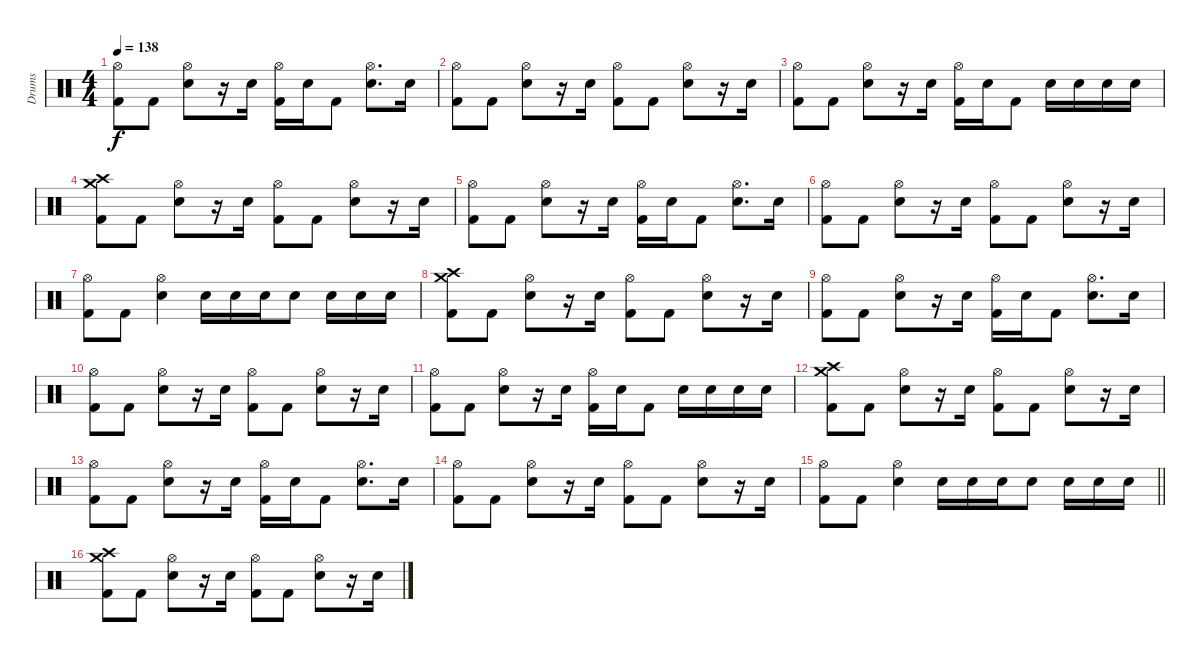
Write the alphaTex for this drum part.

\track ("Drums" "Drums") {instrument percussion}
\staff {score}
\articulation defaults
\ts (4 4)
\tempo 138
\clef neutral
\ks c
("Hi-Hat (open)" "Kick (hit) 2").8{dy f} "Kick (hit) 2".8 ("Hi-Hat (open)" "Electric Snare (hit)").8 r.16 "Electric Snare (hit)".16 ("Hi-Hat (open)" "Kick (hit) 2").16 "Electric Snare (hit)".16 "Kick (hit) 2".8 ("Hi-Hat (open)" "Electric Snare (hit)").8{d} "Electric Snare (hit)".16 |
("Hi-Hat (open)" "Kick (hit) 2").8 "Kick (hit) 2".8 ("Hi-Hat (open)" "Electric Snare (hit)").8 r.16 "Electric Snare (hit)".16 ("Hi-Hat (open)" "Kick (hit) 2").8 "Kick (hit) 2".8 ("Hi-Hat (open)" "Electric Snare (hit)").8 r.16 "Electric Snare (hit)".16 |
("Hi-Hat (open)" "Kick (hit) 2").8 "Kick (hit) 2".8 ("Hi-Hat (open)" "Electric Snare (hit)").8 r.16 "Electric Snare (hit)".16 ("Hi-Hat (open)" "Kick (hit) 2").16 "Electric Snare (hit)".16 "Kick (hit) 2".8 "Electric Snare (hit)".16 "Electric Snare (hit)".16 "Electric Snare (hit)".16 "Electric Snare (hit)".16 |
("Crash high (hit)" "Crash medium (hit)" "Kick (hit) 2").8 "Kick (hit) 2".8 ("Hi-Hat (open)" "Electric Snare (hit)").8 r.16 "Electric Snare (hit)".16 ("Hi-Hat (open)" "Kick (hit) 2").8 "Kick (hit) 2".8 ("Hi-Hat (open)" "Electric Snare (hit)").8 r.16 "Electric Snare (hit)".16 |
("Hi-Hat (open)" "Kick (hit) 2").8 "Kick (hit) 2".8 ("Hi-Hat (open)" "Electric Snare (hit)").8 r.16 "Electric Snare (hit)".16 ("Hi-Hat (open)" "Kick (hit) 2").16 "Electric Snare (hit)".16 "Kick (hit) 2".8 ("Hi-Hat (open)" "Electric Snare (hit)").8{d} "Electric Snare (hit)".16 |
("Hi-Hat (open)" "Kick (hit) 2").8 "Kick (hit) 2".8 ("Hi-Hat (open)" "Electric Snare (hit)").8 r.16 "Electric Snare (hit)".16 ("Hi-Hat (open)" "Kick (hit) 2").8 "Kick (hit) 2".8 ("Hi-Hat (open)" "Electric Snare (hit)").8 r.16 "Electric Snare (hit)".16 |
("Hi-Hat (open)" "Kick (hit) 2").8 "Kick (hit) 2".8 ("Hi-Hat (open)" "Electric Snare (hit)").4 "Electric Snare (hit)".16 "Electric Snare (hit)".16 "Electric Snare (hit)".16 "Electric Snare (hit)".8 "Electric Snare (hit)".16 "Electric Snare (hit)".16 "Electric Snare (hit)".16 |
("Crash high (hit)" "Crash medium (hit)" "Kick (hit) 2").8 "Kick (hit) 2".8 ("Hi-Hat (open)" "Electric Snare (hit)").8 r.16 "Electric Snare (hit)".16 ("Hi-Hat (open)" "Kick (hit) 2").8 "Kick (hit) 2".8 ("Hi-Hat (open)" "Electric Snare (hit)").8 r.16 "Electric Snare (hit)".16 |
("Hi-Hat (open)" "Kick (hit) 2").8 "Kick (hit) 2".8 ("Hi-Hat (open)" "Electric Snare (hit)").8 r.16 "Electric Snare (hit)".16 ("Hi-Hat (open)" "Kick (hit) 2").16 "Electric Snare (hit)".16 "Kick (hit) 2".8 ("Hi-Hat (open)" "Electric Snare (hit)").8{d} "Electric Snare (hit)".16 |
("Hi-Hat (open)" "Kick (hit) 2").8 "Kick (hit) 2".8 ("Hi-Hat (open)" "Electric Snare (hit)").8 r.16 "Electric Snare (hit)".16 ("Hi-Hat (open)" "Kick (hit) 2").8 "Kick (hit) 2".8 ("Hi-Hat (open)" "Electric Snare (hit)").8 r.16 "Electric Snare (hit)".16 |
("Hi-Hat (open)" "Kick (hit) 2").8 "Kick (hit) 2".8 ("Hi-Hat (open)" "Electric Snare (hit)").8 r.16 "Electric Snare (hit)".16 ("Hi-Hat (open)" "Kick (hit) 2").16 "Electric Snare (hit)".16 "Kick (hit) 2".8 "Electric Snare (hit)".16 "Electric Snare (hit)".16 "Electric Snare (hit)".16 "Electric Snare (hit)".16 |
("Crash high (hit)" "Crash medium (hit)" "Kick (hit) 2").8 "Kick (hit) 2".8 ("Hi-Hat (open)" "Electric Snare (hit)").8 r.16 "Electric Snare (hit)".16 ("Hi-Hat (open)" "Kick (hit) 2").8 "Kick (hit) 2".8 ("Hi-Hat (open)" "Electric Snare (hit)").8 r.16 "Electric Snare (hit)".16 |
("Hi-Hat (open)" "Kick (hit) 2").8 "Kick (hit) 2".8 ("Hi-Hat (open)" "Electric Snare (hit)").8 r.16 "Electric Snare (hit)".16 ("Hi-Hat (open)" "Kick (hit) 2").16 "Electric Snare (hit)".16 "Kick (hit) 2".8 ("Hi-Hat (open)" "Electric Snare (hit)").8{d} "Electric Snare (hit)".16 |
("Hi-Hat (open)" "Kick (hit) 2").8 "Kick (hit) 2".8 ("Hi-Hat (open)" "Electric Snare (hit)").8 r.16 "Electric Snare (hit)".16 ("Hi-Hat (open)" "Kick (hit) 2").8 "Kick (hit) 2".8 ("Hi-Hat (open)" "Electric Snare (hit)").8 r.16 "Electric Snare (hit)".16 |
\barLineRight lightlight
("Hi-Hat (open)" "Kick (hit) 2").8 "Kick (hit) 2".8 ("Hi-Hat (open)" "Electric Snare (hit)").4 "Electric Snare (hit)".16 "Electric Snare (hit)".16 "Electric Snare (hit)".16 "Electric Snare (hit)".8 "Electric Snare (hit)".16 "Electric Snare (hit)".16 "Electric Snare (hit)".16 |
("Crash high (hit)" "Crash medium (hit)" "Kick (hit) 2").8 "Kick (hit) 2".8 ("Hi-Hat (open)" "Electric Snare (hit)").8 r.16 "Electric Snare (hit)".16 ("Hi-Hat (open)" "Kick (hit) 2").8 "Kick (hit) 2".8 ("Hi-Hat (open)" "Electric Snare (hit)").8 r.16 "Electric Snare (hit)".16
